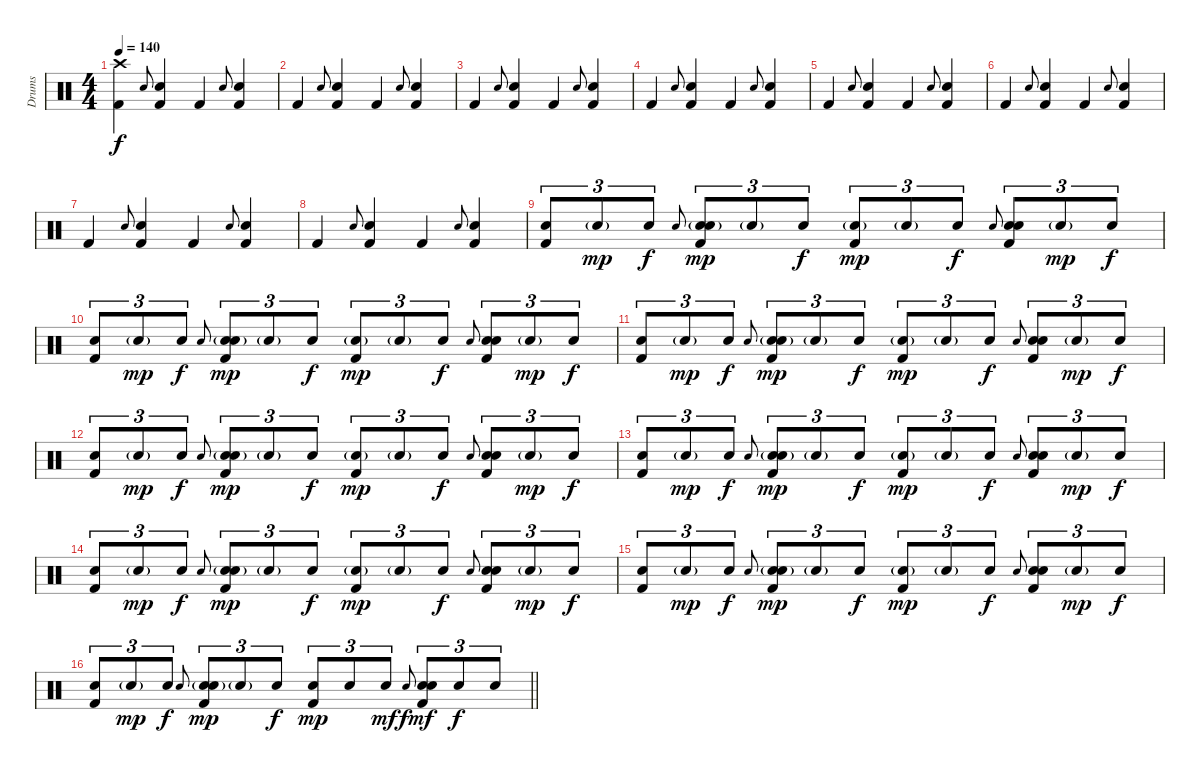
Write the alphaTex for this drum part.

\track ("Drums" "Drums") {instrument percussion}
\staff {score}
\articulation defaults
\ts (4 4)
\tempo 140
\clef neutral
\ks c
("Crash high (hit)" "Kick (hit) 2").4{dy f} "Hand Clap (hit)".8{gr onbeat} ("Hand Clap (hit)" "Kick (hit) 2").4 "Kick (hit) 2".4 "Hand Clap (hit)".8{gr onbeat} ("Hand Clap (hit)" "Kick (hit) 2").4 |
"Kick (hit) 2".4 "Hand Clap (hit)".8{gr onbeat} ("Hand Clap (hit)" "Kick (hit) 2").4 "Kick (hit) 2".4 "Hand Clap (hit)".8{gr onbeat} ("Hand Clap (hit)" "Kick (hit) 2").4 |
"Kick (hit) 2".4 "Hand Clap (hit)".8{gr onbeat} ("Hand Clap (hit)" "Kick (hit) 2").4 "Kick (hit) 2".4 "Hand Clap (hit)".8{gr onbeat} ("Hand Clap (hit)" "Kick (hit) 2").4 |
"Kick (hit) 2".4 "Hand Clap (hit)".8{gr onbeat} ("Hand Clap (hit)" "Kick (hit) 2").4 "Kick (hit) 2".4 "Hand Clap (hit)".8{gr onbeat} ("Hand Clap (hit)" "Kick (hit) 2").4 |
"Kick (hit) 2".4 "Hand Clap (hit)".8{gr onbeat} ("Hand Clap (hit)" "Kick (hit) 2").4 "Kick (hit) 2".4 "Hand Clap (hit)".8{gr onbeat} ("Hand Clap (hit)" "Kick (hit) 2").4 |
"Kick (hit) 2".4 "Hand Clap (hit)".8{gr onbeat} ("Hand Clap (hit)" "Kick (hit) 2").4 "Kick (hit) 2".4 "Hand Clap (hit)".8{gr onbeat} ("Hand Clap (hit)" "Kick (hit) 2").4 |
"Kick (hit) 2".4 "Hand Clap (hit)".8{gr onbeat} ("Hand Clap (hit)" "Kick (hit) 2").4 "Kick (hit) 2".4 "Hand Clap (hit)".8{gr onbeat} ("Hand Clap (hit)" "Kick (hit) 2").4 |
"Kick (hit) 2".4 "Hand Clap (hit)".8{gr onbeat} ("Hand Clap (hit)" "Kick (hit) 2").4 "Kick (hit) 2".4 "Hand Clap (hit)".8{gr onbeat} ("Hand Clap (hit)" "Kick (hit) 2").4 |
("Electric Snare (hit)" "Kick (hit) 2").8{tu (3 2)} "Electric Snare (hit)"{g}.8{tu (3 2) dy mp} "Electric Snare (hit)".8{tu (3 2) dy f} "Hand Clap (hit)".8{gr onbeat} ("Electric Snare (hit)"{g} "Kick (hit) 2" "Hand Clap (hit)").8{tu (3 2) dy mp} "Electric Snare (hit)"{g}.8{tu (3 2)} "Electric Snare (hit)".8{tu (3 2) dy f} ("Electric Snare (hit)"{g} "Kick (hit) 2").8{tu (3 2) dy mp} "Electric Snare (hit)"{g}.8{tu (3 2)} "Electric Snare (hit)".8{tu (3 2) dy f} "Hand Clap (hit)".8{gr onbeat} ("Electric Snare (hit)" "Kick (hit) 2" "Hand Clap (hit)").8{tu (3 2)} "Electric Snare (hit)"{g}.8{tu (3 2) dy mp} "Electric Snare (hit)".8{tu (3 2) dy f} |
("Electric Snare (hit)" "Kick (hit) 2").8{tu (3 2)} "Electric Snare (hit)"{g}.8{tu (3 2) dy mp} "Electric Snare (hit)".8{tu (3 2) dy f} "Hand Clap (hit)".8{gr onbeat} ("Electric Snare (hit)"{g} "Kick (hit) 2" "Hand Clap (hit)").8{tu (3 2) dy mp} "Electric Snare (hit)"{g}.8{tu (3 2)} "Electric Snare (hit)".8{tu (3 2) dy f} ("Electric Snare (hit)"{g} "Kick (hit) 2").8{tu (3 2) dy mp} "Electric Snare (hit)"{g}.8{tu (3 2)} "Electric Snare (hit)".8{tu (3 2) dy f} "Hand Clap (hit)".8{gr onbeat} ("Electric Snare (hit)" "Kick (hit) 2" "Hand Clap (hit)").8{tu (3 2)} "Electric Snare (hit)"{g}.8{tu (3 2) dy mp} "Electric Snare (hit)".8{tu (3 2) dy f} |
("Electric Snare (hit)" "Kick (hit) 2").8{tu (3 2)} "Electric Snare (hit)"{g}.8{tu (3 2) dy mp} "Electric Snare (hit)".8{tu (3 2) dy f} "Hand Clap (hit)".8{gr onbeat} ("Electric Snare (hit)"{g} "Kick (hit) 2" "Hand Clap (hit)").8{tu (3 2) dy mp} "Electric Snare (hit)"{g}.8{tu (3 2)} "Electric Snare (hit)".8{tu (3 2) dy f} ("Electric Snare (hit)"{g} "Kick (hit) 2").8{tu (3 2) dy mp} "Electric Snare (hit)"{g}.8{tu (3 2)} "Electric Snare (hit)".8{tu (3 2) dy f} "Hand Clap (hit)".8{gr onbeat} ("Electric Snare (hit)" "Kick (hit) 2" "Hand Clap (hit)").8{tu (3 2)} "Electric Snare (hit)"{g}.8{tu (3 2) dy mp} "Electric Snare (hit)".8{tu (3 2) dy f} |
("Electric Snare (hit)" "Kick (hit) 2").8{tu (3 2)} "Electric Snare (hit)"{g}.8{tu (3 2) dy mp} "Electric Snare (hit)".8{tu (3 2) dy f} "Hand Clap (hit)".8{gr onbeat} ("Electric Snare (hit)"{g} "Kick (hit) 2" "Hand Clap (hit)").8{tu (3 2) dy mp} "Electric Snare (hit)"{g}.8{tu (3 2)} "Electric Snare (hit)".8{tu (3 2) dy f} ("Electric Snare (hit)"{g} "Kick (hit) 2").8{tu (3 2) dy mp} "Electric Snare (hit)"{g}.8{tu (3 2)} "Electric Snare (hit)".8{tu (3 2) dy f} "Hand Clap (hit)".8{gr onbeat} ("Electric Snare (hit)" "Kick (hit) 2" "Hand Clap (hit)").8{tu (3 2)} "Electric Snare (hit)"{g}.8{tu (3 2) dy mp} "Electric Snare (hit)".8{tu (3 2) dy f} |
("Electric Snare (hit)" "Kick (hit) 2").8{tu (3 2)} "Electric Snare (hit)"{g}.8{tu (3 2) dy mp} "Electric Snare (hit)".8{tu (3 2) dy f} "Hand Clap (hit)".8{gr onbeat} ("Electric Snare (hit)"{g} "Kick (hit) 2" "Hand Clap (hit)").8{tu (3 2) dy mp} "Electric Snare (hit)"{g}.8{tu (3 2)} "Electric Snare (hit)".8{tu (3 2) dy f} ("Electric Snare (hit)"{g} "Kick (hit) 2").8{tu (3 2) dy mp} "Electric Snare (hit)"{g}.8{tu (3 2)} "Electric Snare (hit)".8{tu (3 2) dy f} "Hand Clap (hit)".8{gr onbeat} ("Electric Snare (hit)" "Kick (hit) 2" "Hand Clap (hit)").8{tu (3 2)} "Electric Snare (hit)"{g}.8{tu (3 2) dy mp} "Electric Snare (hit)".8{tu (3 2) dy f} |
("Electric Snare (hit)" "Kick (hit) 2").8{tu (3 2)} "Electric Snare (hit)"{g}.8{tu (3 2) dy mp} "Electric Snare (hit)".8{tu (3 2) dy f} "Hand Clap (hit)".8{gr onbeat} ("Electric Snare (hit)"{g} "Kick (hit) 2" "Hand Clap (hit)").8{tu (3 2) dy mp} "Electric Snare (hit)"{g}.8{tu (3 2)} "Electric Snare (hit)".8{tu (3 2) dy f} ("Electric Snare (hit)"{g} "Kick (hit) 2").8{tu (3 2) dy mp} "Electric Snare (hit)"{g}.8{tu (3 2)} "Electric Snare (hit)".8{tu (3 2) dy f} "Hand Clap (hit)".8{gr onbeat} ("Electric Snare (hit)" "Kick (hit) 2" "Hand Clap (hit)").8{tu (3 2)} "Electric Snare (hit)"{g}.8{tu (3 2) dy mp} "Electric Snare (hit)".8{tu (3 2) dy f} |
("Electric Snare (hit)" "Kick (hit) 2").8{tu (3 2)} "Electric Snare (hit)"{g}.8{tu (3 2) dy mp} "Electric Snare (hit)".8{tu (3 2) dy f} "Hand Clap (hit)".8{gr onbeat} ("Electric Snare (hit)"{g} "Kick (hit) 2" "Hand Clap (hit)").8{tu (3 2) dy mp} "Electric Snare (hit)"{g}.8{tu (3 2)} "Electric Snare (hit)".8{tu (3 2) dy f} ("Electric Snare (hit)"{g} "Kick (hit) 2").8{tu (3 2) dy mp} "Electric Snare (hit)"{g}.8{tu (3 2)} "Electric Snare (hit)".8{tu (3 2) dy f} "Hand Clap (hit)".8{gr onbeat} ("Electric Snare (hit)" "Kick (hit) 2" "Hand Clap (hit)").8{tu (3 2)} "Electric Snare (hit)"{g}.8{tu (3 2) dy mp} "Electric Snare (hit)".8{tu (3 2) dy f} |
\barLineRight lightlight
("Electric Snare (hit)" "Kick (hit) 2").8{tu (3 2)} "Electric Snare (hit)"{g}.8{tu (3 2) dy mp} "Electric Snare (hit)".8{tu (3 2) dy f} "Hand Clap (hit)".8{gr onbeat} ("Electric Snare (hit)"{g} "Kick (hit) 2" "Hand Clap (hit)").8{tu (3 2) dy mp} "Electric Snare (hit)"{g}.8{tu (3 2)} "Electric Snare (hit)".8{tu (3 2) dy f} ("Electric Snare (hit)" "Kick (hit) 2").8{tu (3 2) dy mp} "Electric Snare (hit)".8{tu (3 2)} "Electric Snare (hit)".8{tu (3 2) dy mf} "Hand Clap (hit)".8{gr onbeat dy f} ("Electric Snare (hit)" "Kick (hit) 2" "Hand Clap (hit)").8{tu (3 2) dy mf} "Electric Snare (hit)".8{tu (3 2) dy f} "Electric Snare (hit)".8{tu (3 2)}
